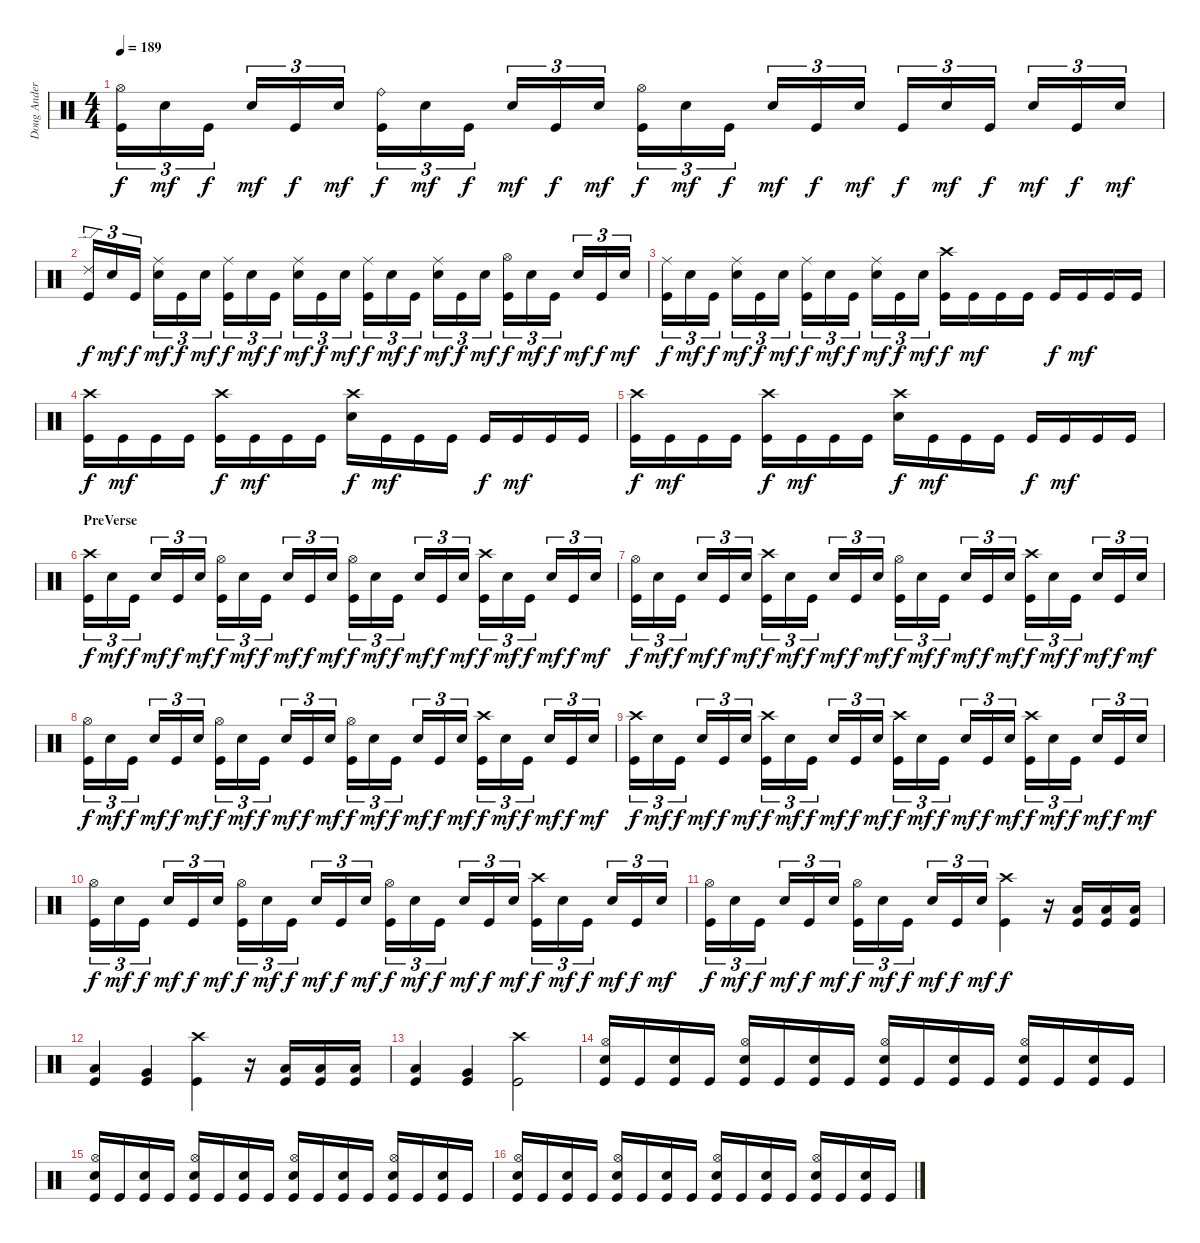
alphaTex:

\track ("Doug Anderson" "Doug Ander") {instrument percussion}
\staff {score}
\articulation defaults
\ts (4 4)
\tempo 189
\clef neutral
\ks c
("Kick (hit)" "Hi-Hat (open)").16{tu (3 2) dy f} "Snare (hit) 2".16{tu (3 2) dy mf} "Kick (hit)".16{tu (3 2) dy f} "Snare (hit) 2".16{tu (3 2) dy mf} "Kick (hit)".16{tu (3 2) dy f} "Snare (hit) 2".16{tu (3 2) dy mf} ("Kick (hit)" "Ride (bell)").16{tu (3 2) dy f} "Snare (hit) 2".16{tu (3 2) dy mf} "Kick (hit)".16{tu (3 2) dy f} "Snare (hit) 2".16{tu (3 2) dy mf} "Kick (hit)".16{tu (3 2) dy f} "Snare (hit) 2".16{tu (3 2) dy mf} ("Kick (hit)" "Hi-Hat (open)").16{tu (3 2) dy f} "Snare (hit) 2".16{tu (3 2) dy mf} "Kick (hit)".16{tu (3 2) dy f} "Snare (hit) 2".16{tu (3 2) dy mf} "Kick (hit)".16{tu (3 2) dy f} "Snare (hit) 2".16{tu (3 2) dy mf} "Kick (hit)".16{tu (3 2) dy f} "Snare (hit) 2".16{tu (3 2) dy mf} "Kick (hit)".16{tu (3 2) dy f} "Snare (hit) 2".16{tu (3 2) dy mf} "Kick (hit)".16{tu (3 2) dy f} "Snare (hit) 2".16{tu (3 2) dy mf} |
("Kick (hit)" "Ride (edge) 2").16{tu (3 2) dy f} "Snare (hit) 2".16{tu (3 2) dy mf} "Kick (hit)".16{tu (3 2) dy f} ("Snare (hit) 2" "Ride (middle)").16{tu (3 2) dy mf} "Kick (hit)".16{tu (3 2) dy f} "Snare (hit) 2".16{tu (3 2) dy mf} ("Kick (hit)" "Ride (middle)").16{tu (3 2) dy f} "Snare (hit) 2".16{tu (3 2) dy mf} "Kick (hit)".16{tu (3 2) dy f} ("Snare (hit) 2" "Ride (middle)").16{tu (3 2) dy mf} "Kick (hit)".16{tu (3 2) dy f} "Snare (hit) 2".16{tu (3 2) dy mf} ("Kick (hit)" "Ride (middle)").16{tu (3 2) dy f} "Snare (hit) 2".16{tu (3 2) dy mf} "Kick (hit)".16{tu (3 2) dy f} ("Snare (hit) 2" "Ride (middle)").16{tu (3 2) dy mf} "Kick (hit)".16{tu (3 2) dy f} "Snare (hit) 2".16{tu (3 2) dy mf} ("Kick (hit)" "Hi-Hat (open)").16{tu (3 2) dy f} "Snare (hit) 2".16{tu (3 2) dy mf} "Kick (hit)".16{tu (3 2) dy f} "Snare (hit) 2".16{tu (3 2) dy mf} "Kick (hit)".16{tu (3 2) dy f} "Snare (hit) 2".16{tu (3 2) dy mf} |
("Kick (hit)" "Ride (middle)").16{tu (3 2) dy f} "Snare (hit) 2".16{tu (3 2) dy mf} "Kick (hit)".16{tu (3 2) dy f} ("Snare (hit) 2" "Ride (middle)").16{tu (3 2) dy mf} "Kick (hit)".16{tu (3 2) dy f} "Snare (hit) 2".16{tu (3 2) dy mf} ("Kick (hit)" "Ride (middle)").16{tu (3 2) dy f} "Snare (hit) 2".16{tu (3 2) dy mf} "Kick (hit)".16{tu (3 2) dy f} ("Snare (hit) 2" "Ride (middle)").16{tu (3 2) dy mf} "Kick (hit)".16{tu (3 2) dy f} "Snare (hit) 2".16{tu (3 2) dy mf} ("Kick (hit)" "Crash high (hit)").16{dy f} "Kick (hit)".16{dy mf} "Kick (hit)".16 "Kick (hit)".16 "Kick (hit)".16{dy f} "Kick (hit)".16{dy mf} "Kick (hit)".16 "Kick (hit)".16 |
("Kick (hit)" "Crash high (hit)").16{dy f} "Kick (hit)".16{dy mf} "Kick (hit)".16 "Kick (hit)".16 ("Kick (hit)" "Crash high (hit)").16{dy f} "Kick (hit)".16{dy mf} "Kick (hit)".16 "Kick (hit)".16 ("Crash high (hit)" "Snare (hit) 2").16{dy f} "Kick (hit)".16{dy mf} "Kick (hit)".16 "Kick (hit)".16 "Kick (hit)".16{dy f} "Kick (hit)".16{dy mf} "Kick (hit)".16 "Kick (hit)".16 |
("Kick (hit)" "Crash high (hit)").16{dy f} "Kick (hit)".16{dy mf} "Kick (hit)".16 "Kick (hit)".16 ("Kick (hit)" "Crash high (hit)").16{dy f} "Kick (hit)".16{dy mf} "Kick (hit)".16 "Kick (hit)".16 ("Crash high (hit)" "Snare (hit) 2").16{dy f} "Kick (hit)".16{dy mf} "Kick (hit)".16 "Kick (hit)".16 "Kick (hit)".16{dy f} "Kick (hit)".16{dy mf} "Kick (hit)".16 "Kick (hit)".16 |
\section ("" "PreVerse")
("Kick (hit)" "Crash high (hit)").16{tu (3 2) dy f} "Snare (hit) 2".16{tu (3 2) dy mf} "Kick (hit)".16{tu (3 2) dy f} "Snare (hit) 2".16{tu (3 2) dy mf} "Kick (hit)".16{tu (3 2) dy f} "Snare (hit) 2".16{tu (3 2) dy mf} ("Kick (hit)" "Hi-Hat (open)").16{tu (3 2) dy f} "Snare (hit) 2".16{tu (3 2) dy mf} "Kick (hit)".16{tu (3 2) dy f} "Snare (hit) 2".16{tu (3 2) dy mf} "Kick (hit)".16{tu (3 2) dy f} "Snare (hit) 2".16{tu (3 2) dy mf} ("Kick (hit)" "Hi-Hat (open)").16{tu (3 2) dy f} "Snare (hit) 2".16{tu (3 2) dy mf} "Kick (hit)".16{tu (3 2) dy f} "Snare (hit) 2".16{tu (3 2) dy mf} "Kick (hit)".16{tu (3 2) dy f} "Snare (hit) 2".16{tu (3 2) dy mf} ("Kick (hit)" "Crash high (hit)").16{tu (3 2) dy f} "Snare (hit) 2".16{tu (3 2) dy mf} "Kick (hit)".16{tu (3 2) dy f} "Snare (hit) 2".16{tu (3 2) dy mf} "Kick (hit)".16{tu (3 2) dy f} "Snare (hit) 2".16{tu (3 2) dy mf} |
("Kick (hit)" "Hi-Hat (open)").16{tu (3 2) dy f} "Snare (hit) 2".16{tu (3 2) dy mf} "Kick (hit)".16{tu (3 2) dy f} "Snare (hit) 2".16{tu (3 2) dy mf} "Kick (hit)".16{tu (3 2) dy f} "Snare (hit) 2".16{tu (3 2) dy mf} ("Kick (hit)" "Crash high (hit)").16{tu (3 2) dy f} "Snare (hit) 2".16{tu (3 2) dy mf} "Kick (hit)".16{tu (3 2) dy f} "Snare (hit) 2".16{tu (3 2) dy mf} "Kick (hit)".16{tu (3 2) dy f} "Snare (hit) 2".16{tu (3 2) dy mf} ("Kick (hit)" "Hi-Hat (open)").16{tu (3 2) dy f} "Snare (hit) 2".16{tu (3 2) dy mf} "Kick (hit)".16{tu (3 2) dy f} "Snare (hit) 2".16{tu (3 2) dy mf} "Kick (hit)".16{tu (3 2) dy f} "Snare (hit) 2".16{tu (3 2) dy mf} ("Kick (hit)" "Crash high (hit)").16{tu (3 2) dy f} "Snare (hit) 2".16{tu (3 2) dy mf} "Kick (hit)".16{tu (3 2) dy f} "Snare (hit) 2".16{tu (3 2) dy mf} "Kick (hit)".16{tu (3 2) dy f} "Snare (hit) 2".16{tu (3 2) dy mf} |
("Kick (hit)" "Hi-Hat (open)").16{tu (3 2) dy f} "Snare (hit) 2".16{tu (3 2) dy mf} "Kick (hit)".16{tu (3 2) dy f} "Snare (hit) 2".16{tu (3 2) dy mf} "Kick (hit)".16{tu (3 2) dy f} "Snare (hit) 2".16{tu (3 2) dy mf} ("Kick (hit)" "Hi-Hat (open)").16{tu (3 2) dy f} "Snare (hit) 2".16{tu (3 2) dy mf} "Kick (hit)".16{tu (3 2) dy f} "Snare (hit) 2".16{tu (3 2) dy mf} "Kick (hit)".16{tu (3 2) dy f} "Snare (hit) 2".16{tu (3 2) dy mf} ("Kick (hit)" "Hi-Hat (open)").16{tu (3 2) dy f} "Snare (hit) 2".16{tu (3 2) dy mf} "Kick (hit)".16{tu (3 2) dy f} "Snare (hit) 2".16{tu (3 2) dy mf} "Kick (hit)".16{tu (3 2) dy f} "Snare (hit) 2".16{tu (3 2) dy mf} ("Kick (hit)" "Crash high (hit)").16{tu (3 2) dy f} "Snare (hit) 2".16{tu (3 2) dy mf} "Kick (hit)".16{tu (3 2) dy f} "Snare (hit) 2".16{tu (3 2) dy mf} "Kick (hit)".16{tu (3 2) dy f} "Snare (hit) 2".16{tu (3 2) dy mf} |
("Kick (hit)" "Crash high (hit)").16{tu (3 2) dy f} "Snare (hit) 2".16{tu (3 2) dy mf} "Kick (hit)".16{tu (3 2) dy f} "Snare (hit) 2".16{tu (3 2) dy mf} "Kick (hit)".16{tu (3 2) dy f} "Snare (hit) 2".16{tu (3 2) dy mf} ("Kick (hit)" "Crash high (hit)").16{tu (3 2) dy f} "Snare (hit) 2".16{tu (3 2) dy mf} "Kick (hit)".16{tu (3 2) dy f} "Snare (hit) 2".16{tu (3 2) dy mf} "Kick (hit)".16{tu (3 2) dy f} "Snare (hit) 2".16{tu (3 2) dy mf} ("Kick (hit)" "Crash high (hit)").16{tu (3 2) dy f} "Snare (hit) 2".16{tu (3 2) dy mf} "Kick (hit)".16{tu (3 2) dy f} "Snare (hit) 2".16{tu (3 2) dy mf} "Kick (hit)".16{tu (3 2) dy f} "Snare (hit) 2".16{tu (3 2) dy mf} ("Kick (hit)" "Crash high (hit)").16{tu (3 2) dy f} "Snare (hit) 2".16{tu (3 2) dy mf} "Kick (hit)".16{tu (3 2) dy f} "Snare (hit) 2".16{tu (3 2) dy mf} "Kick (hit)".16{tu (3 2) dy f} "Snare (hit) 2".16{tu (3 2) dy mf} |
("Kick (hit)" "Hi-Hat (open)").16{tu (3 2) dy f} "Snare (hit) 2".16{tu (3 2) dy mf} "Kick (hit)".16{tu (3 2) dy f} "Snare (hit) 2".16{tu (3 2) dy mf} "Kick (hit)".16{tu (3 2) dy f} "Snare (hit) 2".16{tu (3 2) dy mf} ("Kick (hit)" "Hi-Hat (open)").16{tu (3 2) dy f} "Snare (hit) 2".16{tu (3 2) dy mf} "Kick (hit)".16{tu (3 2) dy f} "Snare (hit) 2".16{tu (3 2) dy mf} "Kick (hit)".16{tu (3 2) dy f} "Snare (hit) 2".16{tu (3 2) dy mf} ("Kick (hit)" "Hi-Hat (open)").16{tu (3 2) dy f} "Snare (hit) 2".16{tu (3 2) dy mf} "Kick (hit)".16{tu (3 2) dy f} "Snare (hit) 2".16{tu (3 2) dy mf} "Kick (hit)".16{tu (3 2) dy f} "Snare (hit) 2".16{tu (3 2) dy mf} ("Kick (hit)" "Crash high (hit)").16{tu (3 2) dy f} "Snare (hit) 2".16{tu (3 2) dy mf} "Kick (hit)".16{tu (3 2) dy f} "Snare (hit) 2".16{tu (3 2) dy mf} "Kick (hit)".16{tu (3 2) dy f} "Snare (hit) 2".16{tu (3 2) dy mf} |
("Kick (hit)" "Hi-Hat (open)").16{tu (3 2) dy f} "Snare (hit) 2".16{tu (3 2) dy mf} "Kick (hit)".16{tu (3 2) dy f} "Snare (hit) 2".16{tu (3 2) dy mf} "Kick (hit)".16{tu (3 2) dy f} "Snare (hit) 2".16{tu (3 2) dy mf} ("Kick (hit)" "Hi-Hat (open)").16{tu (3 2) dy f} "Snare (hit) 2".16{tu (3 2) dy mf} "Kick (hit)".16{tu (3 2) dy f} "Snare (hit) 2".16{tu (3 2) dy mf} "Kick (hit)".16{tu (3 2) dy f} "Snare (hit) 2".16{tu (3 2) dy mf} ("Kick (hit)" "Crash high (hit)").4{dy f} r.16 ("Kick (hit)" "Low Floor Tom (hit)").16 ("Kick (hit)" "Low Floor Tom (hit)").16 ("Kick (hit)" "Low Floor Tom (hit)").16 |
("Kick (hit)" "Low Floor Tom (hit)").4 ("Kick (hit)" "Very Low Tom (hit)").4 ("Kick (hit)" "Crash high (hit)").4 r.16 ("Low Floor Tom (hit)" "Kick (hit)").16 ("Low Floor Tom (hit)" "Kick (hit)").16 ("Low Floor Tom (hit)" "Kick (hit)").16 |
("Kick (hit)" "Low Floor Tom (hit)").4 ("Kick (hit)" "Very Low Tom (hit)").4 ("Kick (hit)" "Crash high (hit)").2 |
("Kick (hit)" "Snare (hit) 2" "Hi-Hat (open)").16 "Kick (hit)".16 ("Kick (hit)" "Snare (hit) 2").16 "Kick (hit)".16 ("Kick (hit)" "Snare (hit) 2" "Hi-Hat (open)").16 "Kick (hit)".16 ("Kick (hit)" "Snare (hit) 2").16 "Kick (hit)".16 ("Kick (hit)" "Snare (hit) 2" "Hi-Hat (open)").16 "Kick (hit)".16 ("Kick (hit)" "Snare (hit) 2").16 "Kick (hit)".16 ("Kick (hit)" "Snare (hit) 2" "Hi-Hat (open)").16 "Kick (hit)".16 ("Kick (hit)" "Snare (hit) 2").16 "Kick (hit)".16 |
("Kick (hit)" "Snare (hit) 2" "Hi-Hat (open)").16 "Kick (hit)".16 ("Kick (hit)" "Snare (hit) 2").16 "Kick (hit)".16 ("Kick (hit)" "Snare (hit) 2" "Hi-Hat (open)").16 "Kick (hit)".16 ("Kick (hit)" "Snare (hit) 2").16 "Kick (hit)".16 ("Kick (hit)" "Snare (hit) 2" "Hi-Hat (open)").16 "Kick (hit)".16 ("Kick (hit)" "Snare (hit) 2").16 "Kick (hit)".16 ("Kick (hit)" "Snare (hit) 2" "Hi-Hat (open)").16 "Kick (hit)".16 ("Kick (hit)" "Snare (hit) 2").16 "Kick (hit)".16 |
("Kick (hit)" "Snare (hit) 2" "Hi-Hat (open)").16 "Kick (hit)".16 ("Kick (hit)" "Snare (hit) 2").16 "Kick (hit)".16 ("Kick (hit)" "Snare (hit) 2" "Hi-Hat (open)").16 "Kick (hit)".16 ("Kick (hit)" "Snare (hit) 2").16 "Kick (hit)".16 ("Kick (hit)" "Snare (hit) 2" "Hi-Hat (open)").16 "Kick (hit)".16 ("Kick (hit)" "Snare (hit) 2").16 "Kick (hit)".16 ("Kick (hit)" "Snare (hit) 2" "Hi-Hat (open)").16 "Kick (hit)".16 ("Kick (hit)" "Snare (hit) 2").16 "Kick (hit)".16
